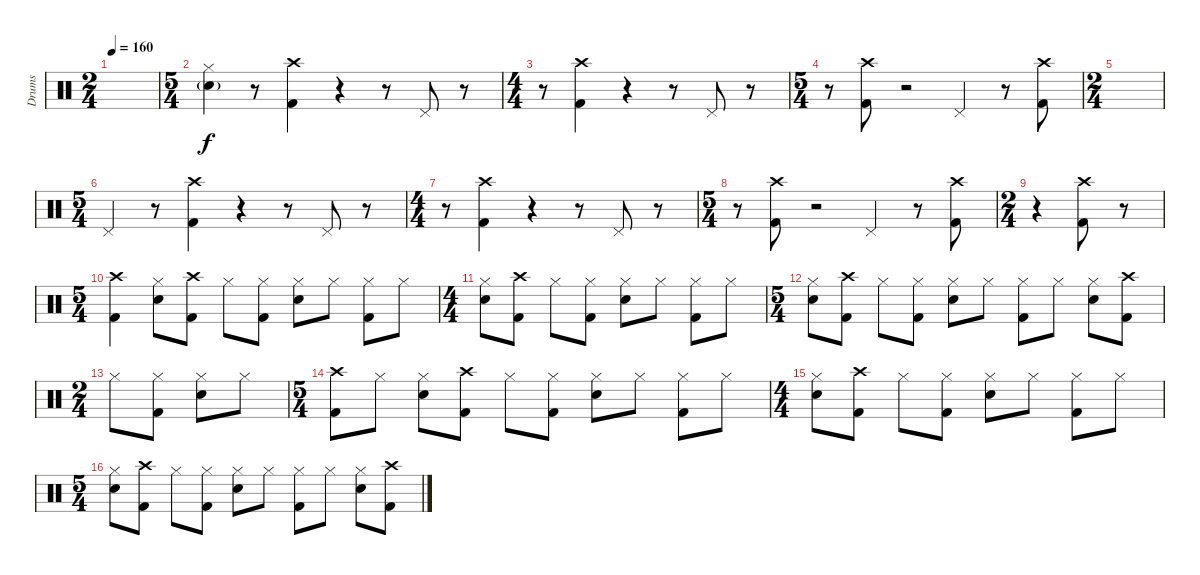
\track ("Drums" "Drums") {instrument percussion}
\staff {score}
\articulation defaults
\ts (2 4)
\tempo 160
\clef neutral
\ks c
|
\ts (5 4)
("Hi-Hat (closed)" "Electric Snare (hit)"{g}).4 r.8 ("Crash high (hit)" "Kick (hit) 2").4{dy f} r.4 r.8 "Pedal Hi-Hat (hit)".8 r.8 |
\ts (4 4)
r.8 ("Crash high (hit)" "Kick (hit) 2").4 r.4 r.8 "Pedal Hi-Hat (hit)".8 r.8 |
\ts (5 4)
r.8 ("Crash high (hit)" "Kick (hit) 2").8 r.2 "Pedal Hi-Hat (hit)".4 r.8 ("Crash high (hit)" "Kick (hit) 2").8 |
\ts (2 4)
|
\ts (5 4)
"Pedal Hi-Hat (hit)".4 r.8 ("Crash high (hit)" "Kick (hit) 2").4 r.4 r.8 "Pedal Hi-Hat (hit)".8 r.8 |
\ts (4 4)
r.8 ("Crash high (hit)" "Kick (hit) 2").4 r.4 r.8 "Pedal Hi-Hat (hit)".8 r.8 |
\ts (5 4)
r.8 ("Crash high (hit)" "Kick (hit) 2").8 r.2 "Pedal Hi-Hat (hit)".4 r.8 ("Crash high (hit)" "Kick (hit) 2").8 |
\ts (2 4)
r.4 ("Crash high (hit)" "Kick (hit) 2").8 r.8 |
\ts (5 4)
("Crash high (hit)" "Kick (hit) 2").4 ("Hi-Hat (closed)" "Electric Snare (hit)").8 ("Crash high (hit)" "Kick (hit) 2").8 "Hi-Hat (closed)".8 ("Hi-Hat (closed)" "Kick (hit) 2").8 ("Hi-Hat (closed)" "Electric Snare (hit)").8 "Hi-Hat (closed)".8 ("Hi-Hat (closed)" "Kick (hit) 2").8 "Hi-Hat (closed)".8 |
\ts (4 4)
("Hi-Hat (closed)" "Electric Snare (hit)").8 ("Crash high (hit)" "Kick (hit) 2").8 "Hi-Hat (closed)".8 ("Hi-Hat (closed)" "Kick (hit) 2").8 ("Hi-Hat (closed)" "Electric Snare (hit)").8 "Hi-Hat (closed)".8 ("Hi-Hat (closed)" "Kick (hit) 2").8 "Hi-Hat (closed)".8 |
\ts (5 4)
("Hi-Hat (closed)" "Electric Snare (hit)").8 ("Crash high (hit)" "Kick (hit) 2").8 "Hi-Hat (closed)".8 ("Hi-Hat (closed)" "Kick (hit) 2").8 ("Hi-Hat (closed)" "Electric Snare (hit)").8 "Hi-Hat (closed)".8 ("Hi-Hat (closed)" "Kick (hit) 2").8 "Hi-Hat (closed)".8 ("Hi-Hat (closed)" "Electric Snare (hit)").8 ("Crash high (hit)" "Kick (hit) 2").8 |
\ts (2 4)
"Hi-Hat (closed)".8 ("Hi-Hat (closed)" "Kick (hit) 2").8 ("Hi-Hat (closed)" "Electric Snare (hit)").8 "Hi-Hat (closed)".8 |
\ts (5 4)
("Crash high (hit)" "Kick (hit) 2").8 "Hi-Hat (closed)".8 ("Hi-Hat (closed)" "Electric Snare (hit)").8 ("Crash high (hit)" "Kick (hit) 2").8 "Hi-Hat (closed)".8 ("Hi-Hat (closed)" "Kick (hit) 2").8 ("Hi-Hat (closed)" "Electric Snare (hit)").8 "Hi-Hat (closed)".8 ("Hi-Hat (closed)" "Kick (hit) 2").8 "Hi-Hat (closed)".8 |
\ts (4 4)
("Hi-Hat (closed)" "Electric Snare (hit)").8 ("Crash high (hit)" "Kick (hit) 2").8 "Hi-Hat (closed)".8 ("Hi-Hat (closed)" "Kick (hit) 2").8 ("Hi-Hat (closed)" "Electric Snare (hit)").8 "Hi-Hat (closed)".8 ("Hi-Hat (closed)" "Kick (hit) 2").8 "Hi-Hat (closed)".8 |
\ts (5 4)
("Hi-Hat (closed)" "Electric Snare (hit)").8 ("Crash high (hit)" "Kick (hit) 2").8 "Hi-Hat (closed)".8 ("Hi-Hat (closed)" "Kick (hit) 2").8 ("Hi-Hat (closed)" "Electric Snare (hit)").8 "Hi-Hat (closed)".8 ("Hi-Hat (closed)" "Kick (hit) 2").8 "Hi-Hat (closed)".8 ("Hi-Hat (closed)" "Electric Snare (hit)").8 ("Crash high (hit)" "Kick (hit) 2").8
